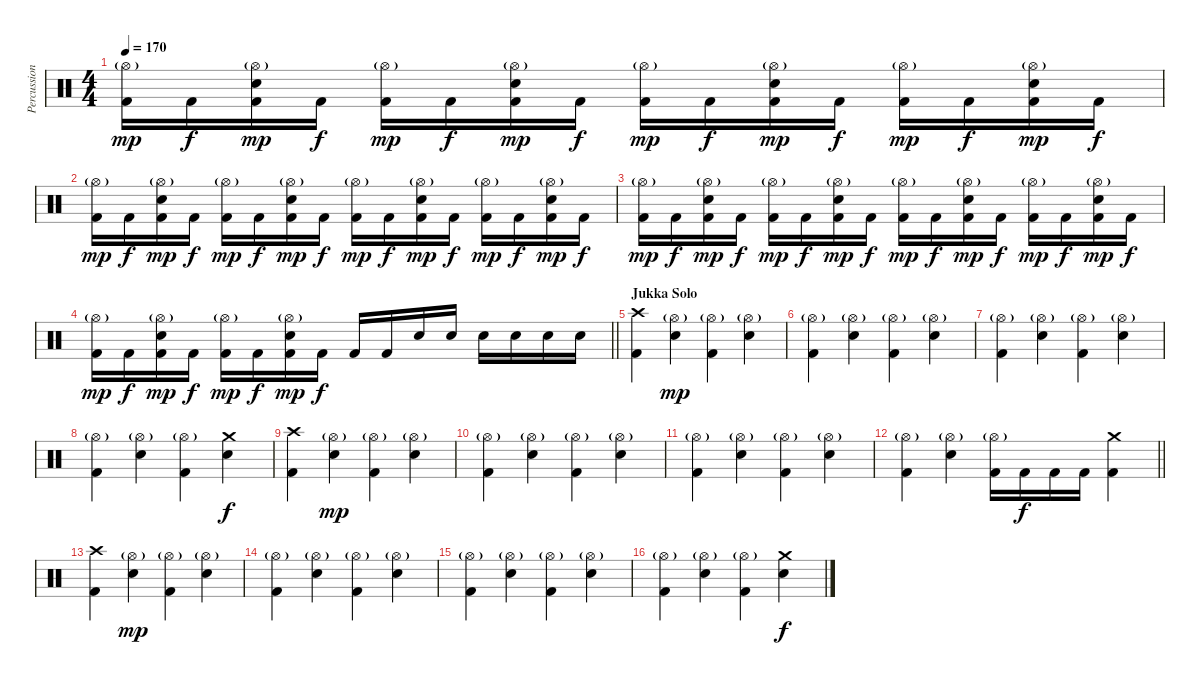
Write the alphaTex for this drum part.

\track ("Percussions" "Percussion") {instrument percussion}
\staff {score}
\articulation defaults
\ts (4 4)
\tempo 170
\clef neutral
\ks c
("Hi-Hat (open)"{g} "Kick (hit) 2").16{dy mp} "Kick (hit) 2".16{dy f} ("Hi-Hat (open)"{g} "Electric Snare (hit)" "Kick (hit) 2").16{dy mp} "Kick (hit) 2".16{dy f} ("Hi-Hat (open)"{g} "Kick (hit) 2").16{dy mp} "Kick (hit) 2".16{dy f} ("Hi-Hat (open)"{g} "Electric Snare (hit)" "Kick (hit) 2").16{dy mp} "Kick (hit) 2".16{dy f} ("Hi-Hat (open)"{g} "Kick (hit) 2").16{dy mp} "Kick (hit) 2".16{dy f} ("Hi-Hat (open)"{g} "Electric Snare (hit)" "Kick (hit) 2").16{dy mp} "Kick (hit) 2".16{dy f} ("Hi-Hat (open)"{g} "Kick (hit) 2").16{dy mp} "Kick (hit) 2".16{dy f} ("Hi-Hat (open)"{g} "Electric Snare (hit)" "Kick (hit) 2").16{dy mp} "Kick (hit) 2".16{dy f} |
("Hi-Hat (open)"{g} "Kick (hit) 2").16{dy mp} "Kick (hit) 2".16{dy f} ("Hi-Hat (open)"{g} "Electric Snare (hit)" "Kick (hit) 2").16{dy mp} "Kick (hit) 2".16{dy f} ("Hi-Hat (open)"{g} "Kick (hit) 2").16{dy mp} "Kick (hit) 2".16{dy f} ("Hi-Hat (open)"{g} "Electric Snare (hit)" "Kick (hit) 2").16{dy mp} "Kick (hit) 2".16{dy f} ("Hi-Hat (open)"{g} "Kick (hit) 2").16{dy mp} "Kick (hit) 2".16{dy f} ("Hi-Hat (open)"{g} "Electric Snare (hit)" "Kick (hit) 2").16{dy mp} "Kick (hit) 2".16{dy f} ("Hi-Hat (open)"{g} "Kick (hit) 2").16{dy mp} "Kick (hit) 2".16{dy f} ("Hi-Hat (open)"{g} "Electric Snare (hit)" "Kick (hit) 2").16{dy mp} "Kick (hit) 2".16{dy f} |
("Hi-Hat (open)"{g} "Kick (hit) 2").16{dy mp} "Kick (hit) 2".16{dy f} ("Hi-Hat (open)"{g} "Electric Snare (hit)" "Kick (hit) 2").16{dy mp} "Kick (hit) 2".16{dy f} ("Hi-Hat (open)"{g} "Kick (hit) 2").16{dy mp} "Kick (hit) 2".16{dy f} ("Hi-Hat (open)"{g} "Electric Snare (hit)" "Kick (hit) 2").16{dy mp} "Kick (hit) 2".16{dy f} ("Hi-Hat (open)"{g} "Kick (hit) 2").16{dy mp} "Kick (hit) 2".16{dy f} ("Hi-Hat (open)"{g} "Electric Snare (hit)" "Kick (hit) 2").16{dy mp} "Kick (hit) 2".16{dy f} ("Hi-Hat (open)"{g} "Kick (hit) 2").16{dy mp} "Kick (hit) 2".16{dy f} ("Hi-Hat (open)"{g} "Electric Snare (hit)" "Kick (hit) 2").16{dy mp} "Kick (hit) 2".16{dy f} |
\barLineRight lightlight
("Hi-Hat (open)"{g} "Kick (hit) 2").16{dy mp} "Kick (hit) 2".16{dy f} ("Hi-Hat (open)"{g} "Electric Snare (hit)" "Kick (hit) 2").16{dy mp} "Kick (hit) 2".16{dy f} ("Hi-Hat (open)"{g} "Kick (hit) 2").16{dy mp} "Kick (hit) 2".16{dy f} ("Hi-Hat (open)"{g} "Electric Snare (hit)" "Kick (hit) 2").16{dy mp} "Kick (hit) 2".16{dy f} "Kick (hit) 2".16 "Kick (hit) 2".16 "Electric Snare (hit)".16 "Electric Snare (hit)".16 "Electric Snare (hit)".16 "Electric Snare (hit)".16 "Electric Snare (hit)".16 "Electric Snare (hit)".16 |
\section ("" "Jukka Solo")
("Crash high (hit)" "Kick (hit) 2").4 ("Hi-Hat (open)"{g} "Electric Snare (hit)").4{dy mp} ("Hi-Hat (open)"{g} "Kick (hit) 2").4 ("Hi-Hat (open)"{g} "Electric Snare (hit)").4 |
("Hi-Hat (open)"{g} "Kick (hit) 2").4 ("Hi-Hat (open)"{g} "Electric Snare (hit)").4 ("Hi-Hat (open)"{g} "Kick (hit) 2").4 ("Hi-Hat (open)"{g} "Electric Snare (hit)").4 |
("Hi-Hat (open)"{g} "Kick (hit) 2").4 ("Hi-Hat (open)"{g} "Electric Snare (hit)").4 ("Hi-Hat (open)"{g} "Kick (hit) 2").4 ("Hi-Hat (open)"{g} "Electric Snare (hit)").4 |
("Hi-Hat (open)"{g} "Kick (hit) 2").4 ("Hi-Hat (open)"{g} "Electric Snare (hit)").4 ("Hi-Hat (open)"{g} "Kick (hit) 2").4 ("Crash medium (hit)" "Electric Snare (hit)").4{dy f} |
("Crash high (hit)" "Kick (hit) 2").4 ("Hi-Hat (open)"{g} "Electric Snare (hit)").4{dy mp} ("Hi-Hat (open)"{g} "Kick (hit) 2").4 ("Hi-Hat (open)"{g} "Electric Snare (hit)").4 |
("Hi-Hat (open)"{g} "Kick (hit) 2").4 ("Hi-Hat (open)"{g} "Electric Snare (hit)").4 ("Hi-Hat (open)"{g} "Kick (hit) 2").4 ("Hi-Hat (open)"{g} "Electric Snare (hit)").4 |
("Hi-Hat (open)"{g} "Kick (hit) 2").4 ("Hi-Hat (open)"{g} "Electric Snare (hit)").4 ("Hi-Hat (open)"{g} "Kick (hit) 2").4 ("Hi-Hat (open)"{g} "Electric Snare (hit)").4 |
\barLineRight lightlight
("Hi-Hat (open)"{g} "Kick (hit) 2").4 ("Hi-Hat (open)"{g} "Electric Snare (hit)").4 ("Hi-Hat (open)"{g} "Kick (hit) 2").16 "Kick (hit) 2".16{dy f} "Kick (hit) 2".16 "Kick (hit) 2".16 ("Crash medium (hit)" "Kick (hit) 2").4 |
("Crash high (hit)" "Kick (hit) 2").4 ("Hi-Hat (open)"{g} "Electric Snare (hit)").4{dy mp} ("Hi-Hat (open)"{g} "Kick (hit) 2").4 ("Hi-Hat (open)"{g} "Electric Snare (hit)").4 |
("Hi-Hat (open)"{g} "Kick (hit) 2").4 ("Hi-Hat (open)"{g} "Electric Snare (hit)").4 ("Hi-Hat (open)"{g} "Kick (hit) 2").4 ("Hi-Hat (open)"{g} "Electric Snare (hit)").4 |
("Hi-Hat (open)"{g} "Kick (hit) 2").4 ("Hi-Hat (open)"{g} "Electric Snare (hit)").4 ("Hi-Hat (open)"{g} "Kick (hit) 2").4 ("Hi-Hat (open)"{g} "Electric Snare (hit)").4 |
("Hi-Hat (open)"{g} "Kick (hit) 2").4 ("Hi-Hat (open)"{g} "Electric Snare (hit)").4 ("Hi-Hat (open)"{g} "Kick (hit) 2").4 ("Crash medium (hit)" "Electric Snare (hit)").4{dy f}
